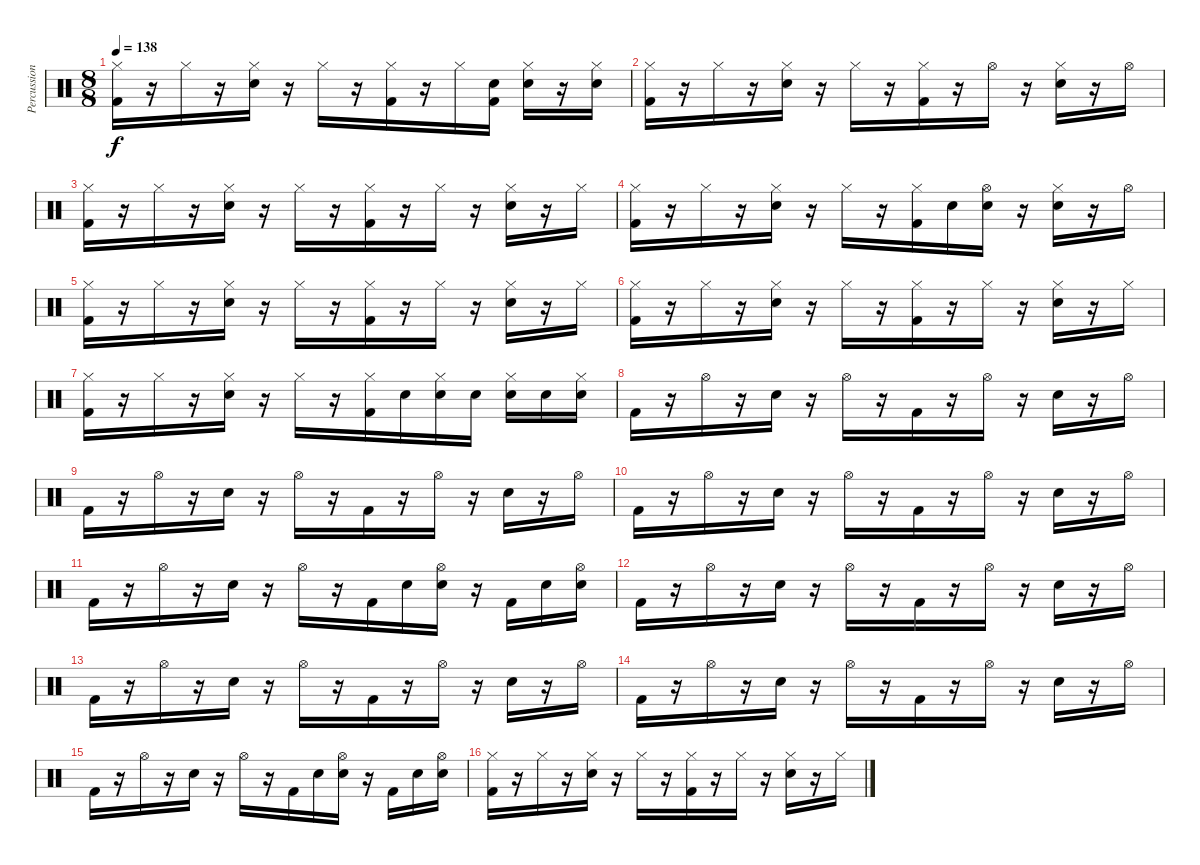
\track ("Percussion" "Percussion") {instrument percussion}
\staff {score}
\articulation defaults
\ts (8 8)
\tempo 138
\clef neutral
\ks c
("Hi-Hat (closed)" "Kick (hit) 2").16{dy f} r.16 "Hi-Hat (closed)".16 r.16 ("Hi-Hat (closed)" "Electric Snare (hit)").16 r.16 "Hi-Hat (closed)".16 r.16 ("Hi-Hat (closed)" "Kick (hit) 2").16 r.16 "Hi-Hat (closed)".16 ("Electric Snare (hit)" "Kick (hit) 2").16 ("Hi-Hat (closed)" "Electric Snare (hit)").16 r.16 ("Hi-Hat (closed)" "Electric Snare (hit)").16 |
("Hi-Hat (closed)" "Kick (hit) 2").16 r.16 "Hi-Hat (closed)".16 r.16 ("Hi-Hat (closed)" "Electric Snare (hit)").16 r.16 "Hi-Hat (closed)".16 r.16 ("Hi-Hat (closed)" "Kick (hit) 2").16 r.16 "Hi-Hat (open)".16 r.16 ("Hi-Hat (closed)" "Electric Snare (hit)").16 r.16 "Hi-Hat (open)".16 |
("Hi-Hat (closed)" "Kick (hit) 2").16 r.16 "Hi-Hat (closed)".16 r.16 ("Hi-Hat (closed)" "Electric Snare (hit)").16 r.16 "Hi-Hat (closed)".16 r.16 ("Hi-Hat (closed)" "Kick (hit) 2").16 r.16 "Hi-Hat (closed)".16 r.16 ("Hi-Hat (closed)" "Electric Snare (hit)").16 r.16 "Hi-Hat (closed)".16 |
("Hi-Hat (closed)" "Kick (hit) 2").16 r.16 "Hi-Hat (closed)".16 r.16 ("Hi-Hat (closed)" "Electric Snare (hit)").16 r.16 "Hi-Hat (closed)".16 r.16 ("Hi-Hat (closed)" "Kick (hit) 2").16 "Electric Snare (hit)".16 ("Hi-Hat (open)" "Electric Snare (hit)").16 r.16 ("Hi-Hat (closed)" "Electric Snare (hit)").16 r.16 "Hi-Hat (open)".16 |
("Hi-Hat (closed)" "Kick (hit) 2").16 r.16 "Hi-Hat (closed)".16 r.16 ("Hi-Hat (closed)" "Electric Snare (hit)").16 r.16 "Hi-Hat (closed)".16 r.16 ("Hi-Hat (closed)" "Kick (hit) 2").16 r.16 "Hi-Hat (closed)".16 r.16 ("Hi-Hat (closed)" "Electric Snare (hit)").16 r.16 "Hi-Hat (closed)".16 |
("Hi-Hat (closed)" "Kick (hit) 2").16 r.16 "Hi-Hat (closed)".16 r.16 ("Hi-Hat (closed)" "Electric Snare (hit)").16 r.16 "Hi-Hat (closed)".16 r.16 ("Hi-Hat (closed)" "Kick (hit) 2").16 r.16 "Hi-Hat (closed)".16 r.16 ("Hi-Hat (closed)" "Electric Snare (hit)").16 r.16 "Hi-Hat (closed)".16 |
("Hi-Hat (closed)" "Kick (hit) 2").16 r.16 "Hi-Hat (closed)".16 r.16 ("Hi-Hat (closed)" "Electric Snare (hit)").16 r.16 "Hi-Hat (closed)".16 r.16 ("Hi-Hat (closed)" "Kick (hit) 2").16 "Electric Snare (hit)".16 ("Hi-Hat (closed)" "Electric Snare (hit)").16 "Electric Snare (hit)".16 ("Hi-Hat (closed)" "Electric Snare (hit)").16 "Electric Snare (hit)".16 ("Hi-Hat (closed)" "Electric Snare (hit)").16 |
"Kick (hit) 2".16 r.16 "Hi-Hat (open)".16 r.16 "Electric Snare (hit)".16 r.16 "Hi-Hat (open)".16 r.16 "Kick (hit) 2".16 r.16 "Hi-Hat (open)".16 r.16 "Electric Snare (hit)".16 r.16 "Hi-Hat (open)".16 |
"Kick (hit) 2".16 r.16 "Hi-Hat (open)".16 r.16 "Electric Snare (hit)".16 r.16 "Hi-Hat (open)".16 r.16 "Kick (hit) 2".16 r.16 "Hi-Hat (open)".16 r.16 "Electric Snare (hit)".16 r.16 "Hi-Hat (open)".16 |
"Kick (hit) 2".16 r.16 "Hi-Hat (open)".16 r.16 "Electric Snare (hit)".16 r.16 "Hi-Hat (open)".16 r.16 "Kick (hit) 2".16 r.16 "Hi-Hat (open)".16 r.16 "Electric Snare (hit)".16 r.16 "Hi-Hat (open)".16 |
"Kick (hit) 2".16 r.16 "Hi-Hat (open)".16 r.16 "Electric Snare (hit)".16 r.16 "Hi-Hat (open)".16 r.16 "Kick (hit) 2".16 "Electric Snare (hit)".16 ("Hi-Hat (open)" "Electric Snare (hit)").16 r.16 "Kick (hit) 2".16 "Electric Snare (hit)".16 ("Hi-Hat (open)" "Electric Snare (hit)").16 |
"Kick (hit) 2".16 r.16 "Hi-Hat (open)".16 r.16 "Electric Snare (hit)".16 r.16 "Hi-Hat (open)".16 r.16 "Kick (hit) 2".16 r.16 "Hi-Hat (open)".16 r.16 "Electric Snare (hit)".16 r.16 "Hi-Hat (open)".16 |
"Kick (hit) 2".16 r.16 "Hi-Hat (open)".16 r.16 "Electric Snare (hit)".16 r.16 "Hi-Hat (open)".16 r.16 "Kick (hit) 2".16 r.16 "Hi-Hat (open)".16 r.16 "Electric Snare (hit)".16 r.16 "Hi-Hat (open)".16 |
"Kick (hit) 2".16 r.16 "Hi-Hat (open)".16 r.16 "Electric Snare (hit)".16 r.16 "Hi-Hat (open)".16 r.16 "Kick (hit) 2".16 r.16 "Hi-Hat (open)".16 r.16 "Electric Snare (hit)".16 r.16 "Hi-Hat (open)".16 |
"Kick (hit) 2".16 r.16 "Hi-Hat (open)".16 r.16 "Electric Snare (hit)".16 r.16 "Hi-Hat (open)".16 r.16 "Kick (hit) 2".16 "Electric Snare (hit)".16 ("Hi-Hat (open)" "Electric Snare (hit)").16 r.16 "Kick (hit) 2".16 "Electric Snare (hit)".16 ("Hi-Hat (open)" "Electric Snare (hit)").16 |
("Hi-Hat (closed)" "Kick (hit) 2").16 r.16 "Hi-Hat (closed)".16 r.16 ("Hi-Hat (closed)" "Electric Snare (hit)").16 r.16 "Hi-Hat (closed)".16 r.16 ("Hi-Hat (closed)" "Kick (hit) 2").16 r.16 "Hi-Hat (closed)".16 r.16 ("Hi-Hat (closed)" "Electric Snare (hit)").16 r.16 "Hi-Hat (closed)".16
